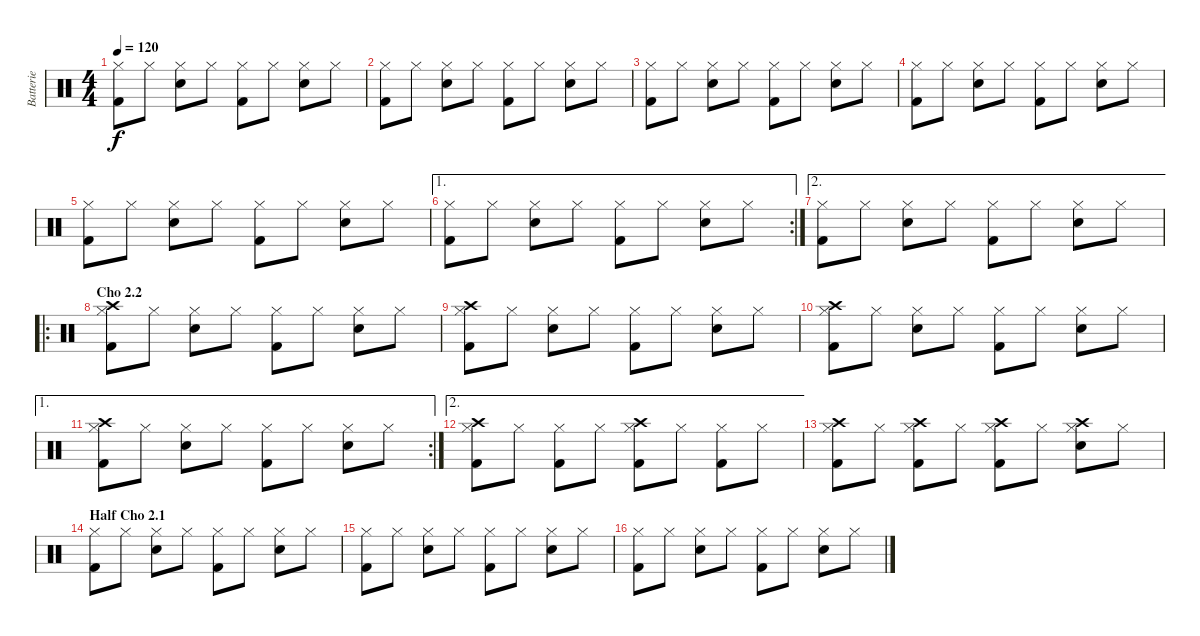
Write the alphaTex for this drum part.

\track ("Batterie" "Batterie") {instrument percussion}
\staff {score}
\articulation defaults
\ts (4 4)
\tempo 120
\clef neutral
\ks c
("Hi-Hat (closed)" "Kick (hit) 2").8{dy f} "Hi-Hat (closed)".8 ("Hi-Hat (closed)" "Electric Snare (hit)").8 "Hi-Hat (closed)".8 ("Hi-Hat (closed)" "Kick (hit) 2").8 "Hi-Hat (closed)".8 ("Hi-Hat (closed)" "Electric Snare (hit)").8 "Hi-Hat (closed)".8 |
("Hi-Hat (closed)" "Kick (hit) 2").8 "Hi-Hat (closed)".8 ("Hi-Hat (closed)" "Electric Snare (hit)").8 "Hi-Hat (closed)".8 ("Hi-Hat (closed)" "Kick (hit) 2").8 "Hi-Hat (closed)".8 ("Hi-Hat (closed)" "Electric Snare (hit)").8 "Hi-Hat (closed)".8 |
("Hi-Hat (closed)" "Kick (hit) 2").8 "Hi-Hat (closed)".8 ("Hi-Hat (closed)" "Electric Snare (hit)").8 "Hi-Hat (closed)".8 ("Hi-Hat (closed)" "Kick (hit) 2").8 "Hi-Hat (closed)".8 ("Hi-Hat (closed)" "Electric Snare (hit)").8 "Hi-Hat (closed)".8 |
("Hi-Hat (closed)" "Kick (hit) 2").8 "Hi-Hat (closed)".8 ("Hi-Hat (closed)" "Electric Snare (hit)").8 "Hi-Hat (closed)".8 ("Hi-Hat (closed)" "Kick (hit) 2").8 "Hi-Hat (closed)".8 ("Hi-Hat (closed)" "Electric Snare (hit)").8 "Hi-Hat (closed)".8 |
("Hi-Hat (closed)" "Kick (hit) 2").8 "Hi-Hat (closed)".8 ("Hi-Hat (closed)" "Electric Snare (hit)").8 "Hi-Hat (closed)".8 ("Hi-Hat (closed)" "Kick (hit) 2").8 "Hi-Hat (closed)".8 ("Hi-Hat (closed)" "Electric Snare (hit)").8 "Hi-Hat (closed)".8 |
\ae 1
\rc 2
("Hi-Hat (closed)" "Kick (hit) 2").8 "Hi-Hat (closed)".8 ("Hi-Hat (closed)" "Electric Snare (hit)").8 "Hi-Hat (closed)".8 ("Hi-Hat (closed)" "Kick (hit) 2").8 "Hi-Hat (closed)".8 ("Hi-Hat (closed)" "Electric Snare (hit)").8 "Hi-Hat (closed)".8 |
\ae 2
("Hi-Hat (closed)" "Kick (hit) 2").8 "Hi-Hat (closed)".8 ("Hi-Hat (closed)" "Electric Snare (hit)").8 "Hi-Hat (closed)".8 ("Hi-Hat (closed)" "Kick (hit) 2").8 "Hi-Hat (closed)".8 ("Hi-Hat (closed)" "Electric Snare (hit)").8 "Hi-Hat (closed)".8 |
\ro
\section ("" "Cho 2.2")
("Hi-Hat (closed)" "Crash high (hit)" "Kick (hit) 2").8 "Hi-Hat (closed)".8 ("Hi-Hat (closed)" "Electric Snare (hit)").8 "Hi-Hat (closed)".8 ("Hi-Hat (closed)" "Kick (hit) 2").8 "Hi-Hat (closed)".8 ("Hi-Hat (closed)" "Electric Snare (hit)").8 "Hi-Hat (closed)".8 |
("Hi-Hat (closed)" "Crash high (hit)" "Kick (hit) 2").8 "Hi-Hat (closed)".8 ("Hi-Hat (closed)" "Electric Snare (hit)").8 "Hi-Hat (closed)".8 ("Hi-Hat (closed)" "Kick (hit) 2").8 "Hi-Hat (closed)".8 ("Hi-Hat (closed)" "Electric Snare (hit)").8 "Hi-Hat (closed)".8 |
("Hi-Hat (closed)" "Crash high (hit)" "Kick (hit) 2").8 "Hi-Hat (closed)".8 ("Hi-Hat (closed)" "Electric Snare (hit)").8 "Hi-Hat (closed)".8 ("Hi-Hat (closed)" "Kick (hit) 2").8 "Hi-Hat (closed)".8 ("Hi-Hat (closed)" "Electric Snare (hit)").8 "Hi-Hat (closed)".8 |
\ae 1
\rc 2
("Hi-Hat (closed)" "Crash high (hit)" "Kick (hit) 2").8 "Hi-Hat (closed)".8 ("Hi-Hat (closed)" "Electric Snare (hit)").8 "Hi-Hat (closed)".8 ("Hi-Hat (closed)" "Kick (hit) 2").8 "Hi-Hat (closed)".8 ("Hi-Hat (closed)" "Electric Snare (hit)").8 "Hi-Hat (closed)".8 |
\ae 2
("Hi-Hat (closed)" "Crash high (hit)" "Kick (hit) 2").8 "Hi-Hat (closed)".8 ("Hi-Hat (closed)" "Kick (hit) 2").8 "Hi-Hat (closed)".8 ("Hi-Hat (closed)" "Crash high (hit)" "Kick (hit) 2").8 "Hi-Hat (closed)".8 ("Hi-Hat (closed)" "Kick (hit) 2").8 "Hi-Hat (closed)".8 |
("Hi-Hat (closed)" "Crash high (hit)" "Kick (hit) 2").8 "Hi-Hat (closed)".8 ("Hi-Hat (closed)" "Crash high (hit)" "Kick (hit) 2").8 "Hi-Hat (closed)".8 ("Hi-Hat (closed)" "Crash high (hit)" "Kick (hit) 2").8 "Hi-Hat (closed)".8 ("Hi-Hat (closed)" "Crash high (hit)" "Electric Snare (hit)").8 "Hi-Hat (closed)".8 |
\section ("" "Half Cho 2.1")
("Hi-Hat (closed)" "Kick (hit) 2").8 "Hi-Hat (closed)".8 ("Hi-Hat (closed)" "Electric Snare (hit)").8 "Hi-Hat (closed)".8 ("Hi-Hat (closed)" "Kick (hit) 2").8 "Hi-Hat (closed)".8 ("Hi-Hat (closed)" "Electric Snare (hit)").8 "Hi-Hat (closed)".8 |
("Hi-Hat (closed)" "Kick (hit) 2").8 "Hi-Hat (closed)".8 ("Hi-Hat (closed)" "Electric Snare (hit)").8 "Hi-Hat (closed)".8 ("Hi-Hat (closed)" "Kick (hit) 2").8 "Hi-Hat (closed)".8 ("Hi-Hat (closed)" "Electric Snare (hit)").8 "Hi-Hat (closed)".8 |
("Hi-Hat (closed)" "Kick (hit) 2").8 "Hi-Hat (closed)".8 ("Hi-Hat (closed)" "Electric Snare (hit)").8 "Hi-Hat (closed)".8 ("Hi-Hat (closed)" "Kick (hit) 2").8 "Hi-Hat (closed)".8 ("Hi-Hat (closed)" "Electric Snare (hit)").8 "Hi-Hat (closed)".8
